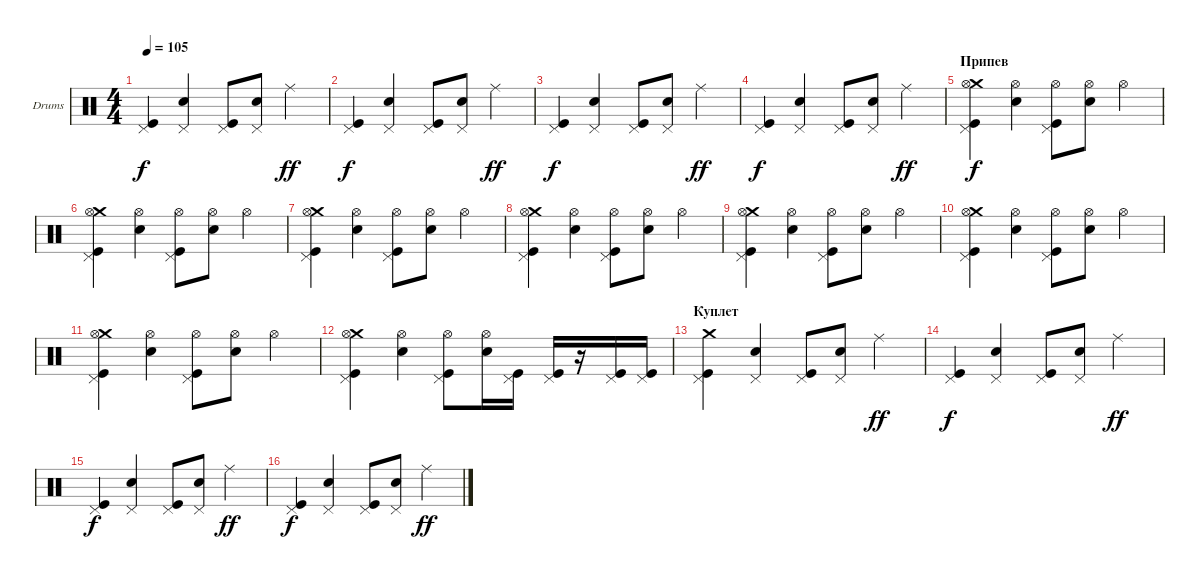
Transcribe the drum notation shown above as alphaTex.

\defaultSystemsLayout 4
\bracketExtendMode groupsimilarinstruments
\firstSystemTrackNameOrientation horizontal
\otherSystemsTrackNameOrientation horizontal
\track ("Е. Кулаков" "Drums") {instrument percussion}
\staff {score}
\articulation defaults
\ts (4 4)
\tempo 105
\clef neutral
\ks c
("Pedal Hi-Hat (hit)" "Kick (hit)").4{dy f} ("Snare (hit) 2" "Pedal Hi-Hat (hit)").4 ("Pedal Hi-Hat (hit)" "Kick (hit)").8 ("Snare (hit) 2" "Pedal Hi-Hat (hit)").8 "Ride (middle)".4{dy ff} |
("Pedal Hi-Hat (hit)" "Kick (hit)").4{dy f} ("Snare (hit) 2" "Pedal Hi-Hat (hit)").4 ("Pedal Hi-Hat (hit)" "Kick (hit)").8 ("Snare (hit) 2" "Pedal Hi-Hat (hit)").8 "Ride (middle)".4{dy ff} |
("Pedal Hi-Hat (hit)" "Kick (hit)").4{dy f} ("Snare (hit) 2" "Pedal Hi-Hat (hit)").4 ("Pedal Hi-Hat (hit)" "Kick (hit)").8 ("Snare (hit) 2" "Pedal Hi-Hat (hit)").8 "Ride (middle)".4{dy ff} |
("Pedal Hi-Hat (hit)" "Kick (hit)").4{dy f} ("Snare (hit) 2" "Pedal Hi-Hat (hit)").4 ("Pedal Hi-Hat (hit)" "Kick (hit)").8 ("Snare (hit) 2" "Pedal Hi-Hat (hit)").8 "Ride (middle)".4{dy ff} |
\section ("" "Припев")
("Crash medium (hit)" "Pedal Hi-Hat (hit)" "Kick (hit)" "Hi-Hat (open)").4{dy f} ("Snare (hit) 2" "Hi-Hat (open)").4 ("Pedal Hi-Hat (hit)" "Kick (hit)" "Hi-Hat (open)").8 ("Snare (hit) 2" "Hi-Hat (open)").8 "Hi-Hat (open)".4 |
("Crash medium (hit)" "Pedal Hi-Hat (hit)" "Kick (hit)" "Hi-Hat (open)").4 ("Snare (hit) 2" "Hi-Hat (open)").4 ("Pedal Hi-Hat (hit)" "Kick (hit)" "Hi-Hat (open)").8 ("Snare (hit) 2" "Hi-Hat (open)").8 "Hi-Hat (open)".4 |
("Crash medium (hit)" "Pedal Hi-Hat (hit)" "Kick (hit)" "Hi-Hat (open)").4 ("Snare (hit) 2" "Hi-Hat (open)").4 ("Pedal Hi-Hat (hit)" "Kick (hit)" "Hi-Hat (open)").8 ("Snare (hit) 2" "Hi-Hat (open)").8 "Hi-Hat (open)".4 |
("Crash medium (hit)" "Pedal Hi-Hat (hit)" "Kick (hit)" "Hi-Hat (open)").4 ("Snare (hit) 2" "Hi-Hat (open)").4 ("Pedal Hi-Hat (hit)" "Kick (hit)" "Hi-Hat (open)").8 ("Snare (hit) 2" "Hi-Hat (open)").8 "Hi-Hat (open)".4 |
("Crash medium (hit)" "Pedal Hi-Hat (hit)" "Kick (hit)" "Hi-Hat (open)").4 ("Snare (hit) 2" "Hi-Hat (open)").4 ("Pedal Hi-Hat (hit)" "Kick (hit)" "Hi-Hat (open)").8 ("Snare (hit) 2" "Hi-Hat (open)").8 "Hi-Hat (open)".4 |
("Crash medium (hit)" "Pedal Hi-Hat (hit)" "Kick (hit)" "Hi-Hat (open)").4 ("Snare (hit) 2" "Hi-Hat (open)").4 ("Pedal Hi-Hat (hit)" "Kick (hit)" "Hi-Hat (open)").8 ("Snare (hit) 2" "Hi-Hat (open)").8 "Hi-Hat (open)".4 |
("Crash medium (hit)" "Pedal Hi-Hat (hit)" "Kick (hit)" "Hi-Hat (open)").4 ("Snare (hit) 2" "Hi-Hat (open)").4 ("Pedal Hi-Hat (hit)" "Kick (hit)" "Hi-Hat (open)").8 ("Snare (hit) 2" "Hi-Hat (open)").8 "Hi-Hat (open)".4 |
("Crash medium (hit)" "Pedal Hi-Hat (hit)" "Kick (hit)" "Hi-Hat (open)").4 ("Snare (hit) 2" "Hi-Hat (open)").4 ("Pedal Hi-Hat (hit)" "Kick (hit)" "Hi-Hat (open)").8 ("Snare (hit) 2" "Hi-Hat (open)").16 ("Pedal Hi-Hat (hit)" "Kick (hit)").16 ("Pedal Hi-Hat (hit)" "Kick (hit)").16 r.16 ("Pedal Hi-Hat (hit)" "Kick (hit)").16 ("Pedal Hi-Hat (hit)" "Kick (hit)").16 |
\section ("" "Куплет")
("Crash medium (hit)" "Pedal Hi-Hat (hit)" "Kick (hit)").4 ("Snare (hit) 2" "Pedal Hi-Hat (hit)").4 ("Pedal Hi-Hat (hit)" "Kick (hit)").8 ("Snare (hit) 2" "Pedal Hi-Hat (hit)").8 "Ride (middle)".4{dy ff} |
("Pedal Hi-Hat (hit)" "Kick (hit)").4{dy f} ("Snare (hit) 2" "Pedal Hi-Hat (hit)").4 ("Pedal Hi-Hat (hit)" "Kick (hit)").8 ("Snare (hit) 2" "Pedal Hi-Hat (hit)").8 "Ride (middle)".4{dy ff} |
("Pedal Hi-Hat (hit)" "Kick (hit)").4{dy f} ("Snare (hit) 2" "Pedal Hi-Hat (hit)").4 ("Pedal Hi-Hat (hit)" "Kick (hit)").8 ("Snare (hit) 2" "Pedal Hi-Hat (hit)").8 "Ride (middle)".4{dy ff} |
("Pedal Hi-Hat (hit)" "Kick (hit)").4{dy f} ("Snare (hit) 2" "Pedal Hi-Hat (hit)").4 ("Pedal Hi-Hat (hit)" "Kick (hit)").8 ("Snare (hit) 2" "Pedal Hi-Hat (hit)").8 "Ride (middle)".4{dy ff}
